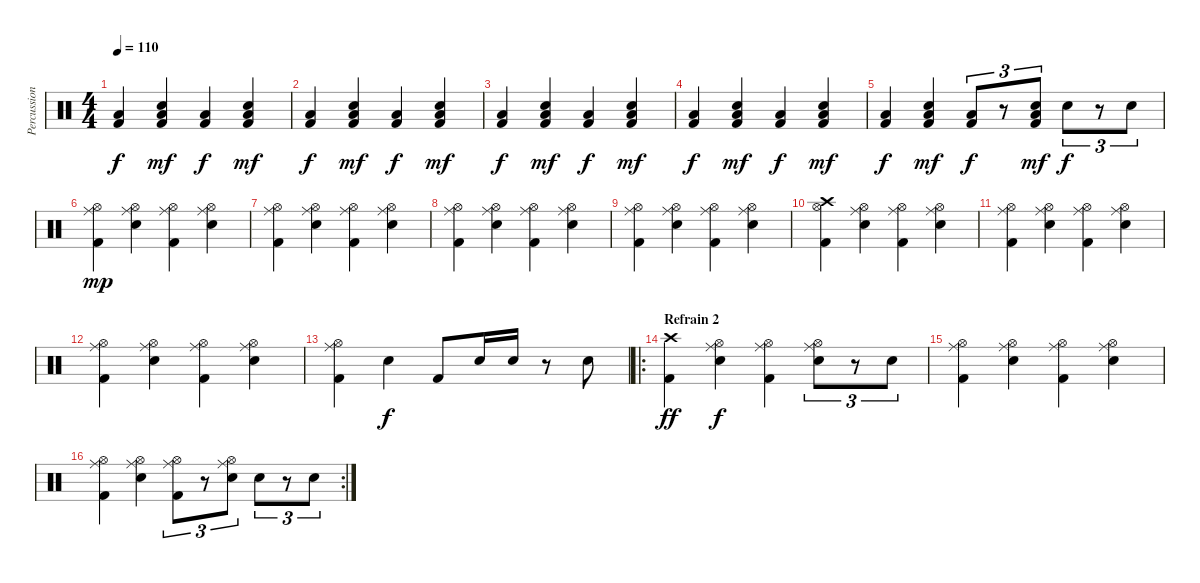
\track ("Percussions" "Percussion") {instrument percussion}
\staff {score}
\articulation defaults
\ts (4 4)
\tempo 110
\clef neutral
\ks c
("Kick (hit) 2" "Low Floor Tom (hit)").4{dy f} ("Snare (hit) 2" "Kick (hit) 2" "Low Floor Tom (hit)").4{dy mf} ("Kick (hit) 2" "Low Floor Tom (hit)").4{dy f} ("Snare (hit) 2" "Kick (hit) 2" "Low Floor Tom (hit)").4{dy mf} |
("Kick (hit) 2" "Low Floor Tom (hit)").4{dy f} ("Snare (hit) 2" "Kick (hit) 2" "Low Floor Tom (hit)").4{dy mf} ("Kick (hit) 2" "Low Floor Tom (hit)").4{dy f} ("Snare (hit) 2" "Kick (hit) 2" "Low Floor Tom (hit)").4{dy mf} |
("Kick (hit) 2" "Low Floor Tom (hit)").4{dy f} ("Snare (hit) 2" "Kick (hit) 2" "Low Floor Tom (hit)").4{dy mf} ("Kick (hit) 2" "Low Floor Tom (hit)").4{dy f} ("Snare (hit) 2" "Kick (hit) 2" "Low Floor Tom (hit)").4{dy mf} |
("Kick (hit) 2" "Low Floor Tom (hit)").4{dy f} ("Snare (hit) 2" "Kick (hit) 2" "Low Floor Tom (hit)").4{dy mf} ("Kick (hit) 2" "Low Floor Tom (hit)").4{dy f} ("Snare (hit) 2" "Kick (hit) 2" "Low Floor Tom (hit)").4{dy mf} |
("Kick (hit) 2" "Low Floor Tom (hit)").4{dy f} ("Snare (hit) 2" "Kick (hit) 2" "Low Floor Tom (hit)").4{dy mf} ("Kick (hit) 2" "Low Floor Tom (hit)").8{tu (3 2) dy f} r.8{tu (3 2)} ("Snare (hit) 2" "Kick (hit) 2" "Low Floor Tom (hit)").8{tu (3 2) dy mf} "Snare (hit) 2".8{tu (3 2) dy f} r.8{tu (3 2)} "Snare (hit) 2".8{tu (3 2)} |
("Ride (middle)" "Hi-Hat (open)" "Kick (hit) 2").4{dy mp} ("Ride (middle)" "Hi-Hat (open)" "Electric Snare (hit)").4 ("Ride (middle)" "Hi-Hat (open)" "Kick (hit) 2").4 ("Ride (middle)" "Hi-Hat (open)" "Electric Snare (hit)").4 |
("Ride (middle)" "Hi-Hat (open)" "Kick (hit) 2").4 ("Ride (middle)" "Hi-Hat (open)" "Electric Snare (hit)").4 ("Ride (middle)" "Hi-Hat (open)" "Kick (hit) 2").4 ("Ride (middle)" "Hi-Hat (open)" "Electric Snare (hit)").4 |
("Ride (middle)" "Hi-Hat (open)" "Kick (hit) 2").4 ("Ride (middle)" "Hi-Hat (open)" "Electric Snare (hit)").4 ("Ride (middle)" "Hi-Hat (open)" "Kick (hit) 2").4 ("Ride (middle)" "Hi-Hat (open)" "Electric Snare (hit)").4 |
("Ride (middle)" "Hi-Hat (open)" "Kick (hit) 2").4 ("Ride (middle)" "Hi-Hat (open)" "Electric Snare (hit)").4 ("Ride (middle)" "Hi-Hat (open)" "Kick (hit) 2").4 ("Ride (middle)" "Hi-Hat (open)" "Electric Snare (hit)").4 |
("Crash high (hit)" "Hi-Hat (open)" "Kick (hit) 2").4 ("Ride (middle)" "Hi-Hat (open)" "Electric Snare (hit)").4 ("Ride (middle)" "Hi-Hat (open)" "Kick (hit) 2").4 ("Ride (middle)" "Hi-Hat (open)" "Electric Snare (hit)").4 |
("Ride (middle)" "Hi-Hat (open)" "Kick (hit) 2").4 ("Ride (middle)" "Hi-Hat (open)" "Electric Snare (hit)").4 ("Ride (middle)" "Hi-Hat (open)" "Kick (hit) 2").4 ("Ride (middle)" "Hi-Hat (open)" "Electric Snare (hit)").4 |
("Ride (middle)" "Hi-Hat (open)" "Kick (hit) 2").4 ("Ride (middle)" "Hi-Hat (open)" "Electric Snare (hit)").4 ("Ride (middle)" "Hi-Hat (open)" "Kick (hit) 2").4 ("Ride (middle)" "Hi-Hat (open)" "Electric Snare (hit)").4 |
("Ride (middle)" "Hi-Hat (open)" "Kick (hit) 2").4 "Electric Snare (hit)".4{dy f} "Kick (hit) 2".8 "Electric Snare (hit)".16 "Electric Snare (hit)".16 r.8 "Electric Snare (hit)".8 |
\ro
\section ("" "Refrain 2")
("Crash high (hit)" "Kick (hit) 2").4{dy ff} ("Ride (middle)" "Hi-Hat (open)" "Electric Snare (hit)").4{dy f} ("Ride (middle)" "Hi-Hat (open)" "Kick (hit) 2").4 ("Ride (middle)" "Hi-Hat (open)" "Electric Snare (hit)").8{tu (3 2)} r.8{tu (3 2)} "Electric Snare (hit)".8{tu (3 2)} |
("Ride (middle)" "Hi-Hat (open)" "Kick (hit) 2").4 ("Ride (middle)" "Hi-Hat (open)" "Electric Snare (hit)").4 ("Ride (middle)" "Hi-Hat (open)" "Kick (hit) 2").4 ("Ride (middle)" "Hi-Hat (open)" "Electric Snare (hit)").4 |
\rc 2
("Ride (middle)" "Hi-Hat (open)" "Kick (hit) 2").4 ("Ride (middle)" "Hi-Hat (open)" "Electric Snare (hit)").4 ("Ride (middle)" "Hi-Hat (open)" "Kick (hit) 2").8{tu (3 2)} r.8{tu (3 2)} ("Ride (middle)" "Hi-Hat (open)" "Electric Snare (hit)").8{tu (3 2)} "Electric Snare (hit)".8{tu (3 2)} r.8{tu (3 2)} "Electric Snare (hit)".8{tu (3 2)}
